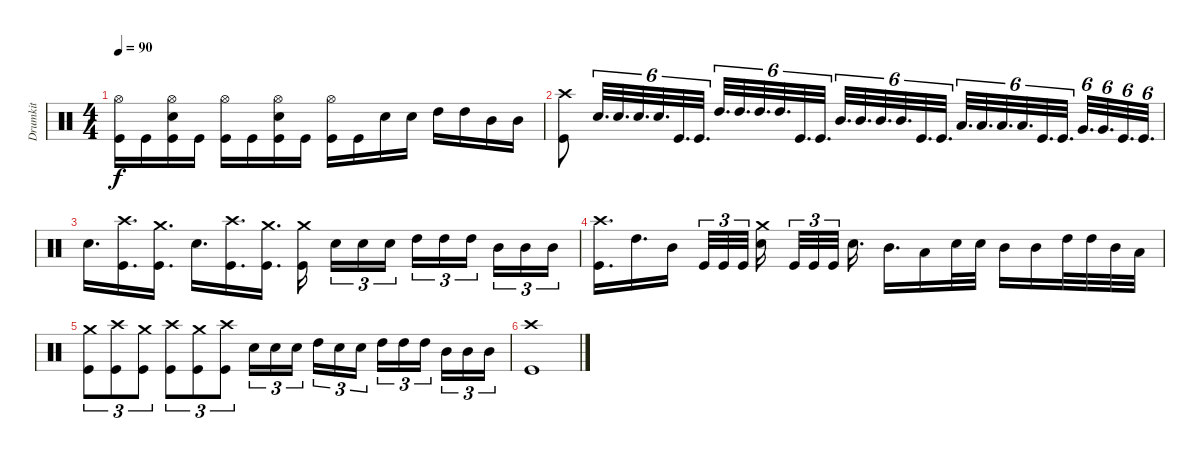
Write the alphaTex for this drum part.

\track ("Drumkit" "Drumkit") {instrument percussion}
\staff {score}
\articulation defaults
\ts (4 4)
\tempo 90
\clef neutral
\ks c
("Hi-Hat (open)" "Kick (hit)").16{dy f} "Kick (hit)".16 ("Hi-Hat (open)" "Snare (hit) 2" "Kick (hit)").16 "Kick (hit)".16 ("Hi-Hat (open)" "Kick (hit)").16 "Kick (hit)".16 ("Hi-Hat (open)" "Snare (hit) 2" "Kick (hit)").16 "Kick (hit)".16 ("Hi-Hat (open)" "Kick (hit)").16 "Kick (hit)".16 "Snare (hit) 2".16 "Snare (hit) 2".16 "High Tom (hit)".16 "High Tom (hit)".16 "Mid Tom (hit)".16 "Mid Tom (hit)".16 |
("Crash high (hit)" "Kick (hit)").8 "Snare (hit) 2".32{d tu (6 4)} "Snare (hit) 2".32{d tu (6 4)} "Snare (hit) 2".32{d tu (6 4)} "Snare (hit) 2".32{d tu (6 4)} "Kick (hit)".32{d tu (6 4)} "Kick (hit)".32{d tu (6 4)} "High Tom (hit)".32{d tu (6 4)} "High Tom (hit)".32{d tu (6 4)} "High Tom (hit)".32{d tu (6 4)} "High Tom (hit)".32{d tu (6 4)} "Kick (hit)".32{d tu (6 4)} "Kick (hit)".32{d tu (6 4)} "Mid Tom (hit)".32{d tu (6 4)} "Mid Tom (hit)".32{d tu (6 4)} "Mid Tom (hit)".32{d tu (6 4)} "Mid Tom (hit)".32{d tu (6 4)} "Kick (hit)".32{d tu (6 4)} "Kick (hit)".32{d tu (6 4)} "Low Tom (hit)".32{d tu (6 4)} "Low Tom (hit)".32{d tu (6 4)} "Low Tom (hit)".32{d tu (6 4)} "Low Tom (hit)".32{d tu (6 4)} "Kick (hit)".32{d tu (6 4)} "Kick (hit)".32{d tu (6 4)} "Very Low Tom (hit)".32{d tu (6 4)} "Very Low Tom (hit)".32{d tu (6 4)} "Kick (hit)".32{d tu (6 4)} "Kick (hit)".32{d tu (6 4)} |
"Snare (hit) 2".16{d} ("Crash high (hit)" "Kick (hit)").16{d} ("Crash medium (hit)" "Kick (hit)").16{d} "Snare (hit) 2".16{d} ("Crash high (hit)" "Kick (hit)").16{d} ("Crash medium (hit)" "Kick (hit)").16{d} ("Crash medium (hit)" "Kick (hit)").16{beam splitsecondary} "Snare (hit) 2".16{tu (3 2)} "Snare (hit) 2".16{tu (3 2)} "Snare (hit) 2".16{tu (3 2)} "High Tom (hit)".16{tu (3 2)} "High Tom (hit)".16{tu (3 2)} "High Tom (hit)".16{tu (3 2) beam splitsecondary} "Mid Tom (hit)".16{tu (3 2)} "Mid Tom (hit)".16{tu (3 2)} "Mid Tom (hit)".16{tu (3 2)} |
("Crash high (hit)" "Kick (hit)").16{d} "High Tom (hit)".16{d} "Mid Tom (hit)".16 "Kick (hit)".32{tu (3 2)} "Kick (hit)".32{tu (3 2)} "Kick (hit)".32{tu (3 2) beam splitsecondary} ("Crash medium (hit)" "Snare (hit) 2").16{beam splitsecondary} "Kick (hit)".32{tu (3 2)} "Kick (hit)".32{tu (3 2)} "Kick (hit)".32{tu (3 2) beam splitsecondary} "Snare (hit) 2".16{d} "Mid Tom (hit)".16{d} "Low Tom (hit)".16 "Snare (hit) 2".32 "Snare (hit) 2".32 "Mid Tom (hit)".16 "Mid Tom (hit)".16 "High Tom (hit)".32 "High Tom (hit)".32 "Mid Tom (hit)".32 "Low Tom (hit)".32 |
("Crash medium (hit)" "Kick (hit)").8{tu (3 2)} ("Crash high (hit)" "Kick (hit)").8{tu (3 2)} ("Crash medium (hit)" "Kick (hit)").8{tu (3 2)} ("Crash high (hit)" "Kick (hit)").8{tu (3 2)} ("Crash medium (hit)" "Kick (hit)").8{tu (3 2)} ("Crash high (hit)" "Kick (hit)").8{tu (3 2)} "Snare (hit) 2".16{tu (3 2)} "Snare (hit) 2".16{tu (3 2)} "Snare (hit) 2".16{tu (3 2) beam splitsecondary} "High Tom (hit)".16{tu (3 2)} "Snare (hit) 2".16{tu (3 2)} "Snare (hit) 2".16{tu (3 2)} "High Tom (hit)".16{tu (3 2)} "High Tom (hit)".16{tu (3 2)} "High Tom (hit)".16{tu (3 2) beam splitsecondary} "Mid Tom (hit)".16{tu (3 2)} "Mid Tom (hit)".16{tu (3 2)} "Mid Tom (hit)".16{tu (3 2)} |
("Crash high (hit)" "Kick (hit)").1
